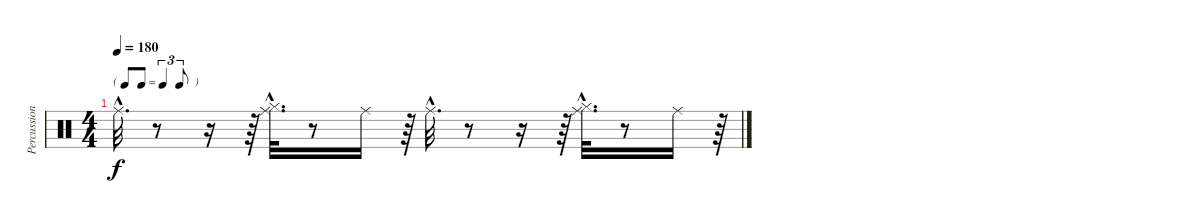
\track ("Percussions" "Percussion") {instrument percussion}
\staff {score}
\articulation defaults
\ts (4 4)
\tf triplet8th
\tempo 180
\clef neutral
\ks c "Ride (middle)"{hac}.32{d dy f}
r.8 r.16 r.64 ("Hi-Hat (closed)"{hac} "Ride (middle)"{hac}).32{d} r.8 "Ride (middle)".16 r.64 "Ride (middle)"{hac}.32{d} r.8 r.16 r.64 ("Hi-Hat (closed)"{hac} "Ride (middle)"{hac}).32{d} r.8 "Ride (middle)".16 r.64
